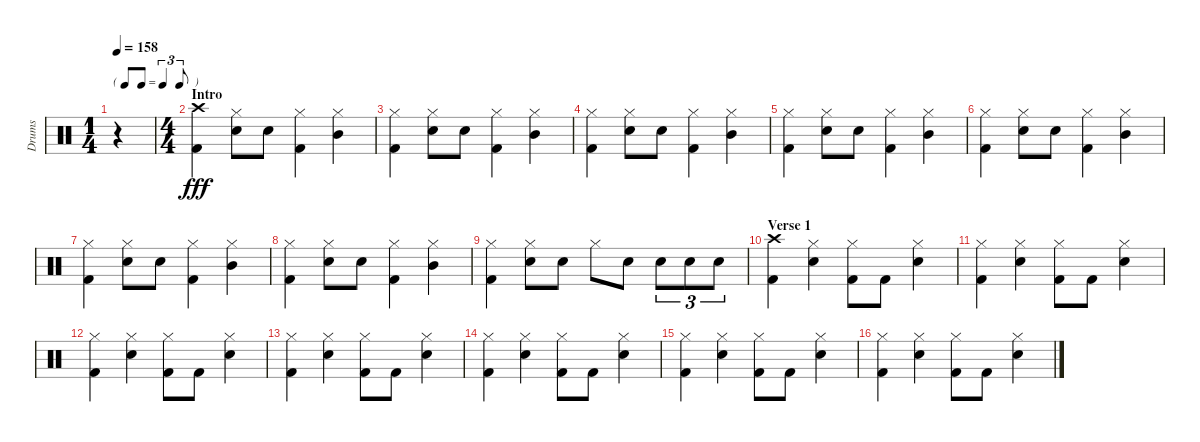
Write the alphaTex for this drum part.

\track ("Drums" "Drums") {instrument percussion}
\staff {score}
\articulation defaults
\ts (1 4)
\tf triplet8th
\tempo 158
\clef neutral
\ks c
r.4{dy fff} |
\ts (4 4)
\section ("" "Intro")
("Crash high (hit)" "Kick (hit) 2").4 ("Hi-Hat (closed)" "Snare (hit) 2").8 "Snare (hit) 2".8 ("Hi-Hat (closed)" "Kick (hit) 2").4 ("Hi-Hat (closed)" "Mid Tom (hit)").4 |
("Hi-Hat (closed)" "Kick (hit) 2").4 ("Hi-Hat (closed)" "Snare (hit) 2").8 "Snare (hit) 2".8 ("Hi-Hat (closed)" "Kick (hit) 2").4 ("Hi-Hat (closed)" "Mid Tom (hit)").4 |
("Hi-Hat (closed)" "Kick (hit) 2").4 ("Hi-Hat (closed)" "Snare (hit) 2").8 "Snare (hit) 2".8 ("Hi-Hat (closed)" "Kick (hit) 2").4 ("Hi-Hat (closed)" "Mid Tom (hit)").4 |
("Hi-Hat (closed)" "Kick (hit) 2").4 ("Hi-Hat (closed)" "Snare (hit) 2").8 "Snare (hit) 2".8 ("Hi-Hat (closed)" "Kick (hit) 2").4 ("Hi-Hat (closed)" "Mid Tom (hit)").4 |
("Hi-Hat (closed)" "Kick (hit) 2").4 ("Hi-Hat (closed)" "Snare (hit) 2").8 "Snare (hit) 2".8 ("Hi-Hat (closed)" "Kick (hit) 2").4 ("Hi-Hat (closed)" "Mid Tom (hit)").4 |
("Hi-Hat (closed)" "Kick (hit) 2").4 ("Hi-Hat (closed)" "Snare (hit) 2").8 "Snare (hit) 2".8 ("Hi-Hat (closed)" "Kick (hit) 2").4 ("Hi-Hat (closed)" "Mid Tom (hit)").4 |
("Hi-Hat (closed)" "Kick (hit) 2").4 ("Hi-Hat (closed)" "Snare (hit) 2").8 "Snare (hit) 2".8 ("Hi-Hat (closed)" "Kick (hit) 2").4 ("Hi-Hat (closed)" "Mid Tom (hit)").4 |
("Hi-Hat (closed)" "Kick (hit) 2").4 ("Hi-Hat (closed)" "Snare (hit) 2").8 "Snare (hit) 2".8 "Hi-Hat (closed)".8 "Snare (hit) 2".8 "Snare (hit) 2".8{tu (3 2)} "Snare (hit) 2".8{tu (3 2)} "Snare (hit) 2".8{tu (3 2)} |
\section ("" "Verse 1")
("Crash high (hit)" "Kick (hit) 2").4 ("Hi-Hat (closed)" "Snare (hit) 2").4 ("Hi-Hat (closed)" "Kick (hit) 2").8 "Kick (hit) 2".8 ("Hi-Hat (closed)" "Snare (hit) 2").4 |
("Hi-Hat (closed)" "Kick (hit) 2").4 ("Hi-Hat (closed)" "Snare (hit) 2").4 ("Hi-Hat (closed)" "Kick (hit) 2").8 "Kick (hit) 2".8 ("Hi-Hat (closed)" "Snare (hit) 2").4 |
("Hi-Hat (closed)" "Kick (hit) 2").4 ("Hi-Hat (closed)" "Snare (hit) 2").4 ("Hi-Hat (closed)" "Kick (hit) 2").8 "Kick (hit) 2".8 ("Hi-Hat (closed)" "Snare (hit) 2").4 |
("Hi-Hat (closed)" "Kick (hit) 2").4 ("Hi-Hat (closed)" "Snare (hit) 2").4 ("Hi-Hat (closed)" "Kick (hit) 2").8 "Kick (hit) 2".8 ("Hi-Hat (closed)" "Snare (hit) 2").4 |
("Hi-Hat (closed)" "Kick (hit) 2").4 ("Hi-Hat (closed)" "Snare (hit) 2").4 ("Hi-Hat (closed)" "Kick (hit) 2").8 "Kick (hit) 2".8 ("Hi-Hat (closed)" "Snare (hit) 2").4 |
("Hi-Hat (closed)" "Kick (hit) 2").4 ("Hi-Hat (closed)" "Snare (hit) 2").4 ("Hi-Hat (closed)" "Kick (hit) 2").8 "Kick (hit) 2".8 ("Hi-Hat (closed)" "Snare (hit) 2").4 |
("Hi-Hat (closed)" "Kick (hit) 2").4 ("Hi-Hat (closed)" "Snare (hit) 2").4 ("Hi-Hat (closed)" "Kick (hit) 2").8 "Kick (hit) 2".8 ("Hi-Hat (closed)" "Snare (hit) 2").4
